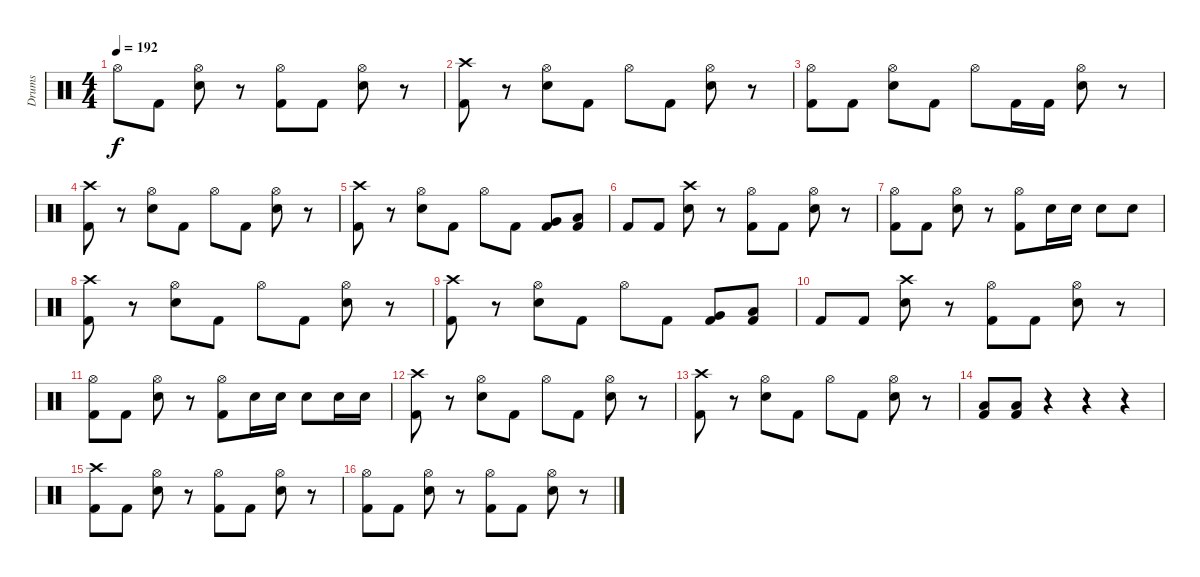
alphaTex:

\track ("Drums" "Drums") {instrument percussion}
\staff {score}
\articulation defaults
\ts (4 4)
\tempo 192
\clef neutral
\ks c "Hi-Hat (open)".8{dy f} "Kick (hit) 2".8
("Hi-Hat (open)" "Snare (hit) 2").8 r.8 ("Hi-Hat (open)" "Kick (hit) 2").8 "Kick (hit) 2".8 ("Hi-Hat (open)" "Snare (hit) 2").8 r.8 |
("Crash high (hit)" "Kick (hit) 2").8 r.8 ("Hi-Hat (open)" "Snare (hit) 2").8 "Kick (hit) 2".8 "Hi-Hat (open)".8 "Kick (hit) 2".8 ("Hi-Hat (open)" "Snare (hit) 2").8 r.8 |
("Hi-Hat (open)" "Kick (hit) 2").8 "Kick (hit) 2".8 ("Hi-Hat (open)" "Snare (hit) 2").8 "Kick (hit) 2".8 "Hi-Hat (open)".8 "Kick (hit) 2".16 "Kick (hit) 2".16 ("Hi-Hat (open)" "Snare (hit) 2").8 r.8 |
("Crash high (hit)" "Kick (hit) 2").8 r.8 ("Hi-Hat (open)" "Snare (hit) 2").8 "Kick (hit) 2".8 "Hi-Hat (open)".8 "Kick (hit) 2".8 ("Hi-Hat (open)" "Snare (hit) 2").8 r.8 |
("Crash high (hit)" "Kick (hit) 2").8 r.8 ("Hi-Hat (open)" "Snare (hit) 2").8 "Kick (hit) 2".8 "Hi-Hat (open)".8 "Kick (hit) 2".8 ("Kick (hit) 2" "Very Low Tom (hit)").8 ("Kick (hit) 2" "Low Floor Tom (hit)").8 |
"Kick (hit) 2".8 "Kick (hit) 2".8 ("Crash high (hit)" "Snare (hit) 2").8 r.8 ("Hi-Hat (open)" "Kick (hit) 2").8 "Kick (hit) 2".8 ("Hi-Hat (open)" "Snare (hit) 2").8 r.8 |
("Hi-Hat (open)" "Kick (hit) 2").8 "Kick (hit) 2".8 ("Hi-Hat (open)" "Snare (hit) 2").8 r.8 ("Hi-Hat (open)" "Kick (hit) 2").8 "Snare (hit) 2".16 "Snare (hit) 2".16 "Snare (hit) 2".8 "Snare (hit) 2".8 |
("Crash high (hit)" "Kick (hit) 2").8 r.8 ("Hi-Hat (open)" "Snare (hit) 2").8 "Kick (hit) 2".8 "Hi-Hat (open)".8 "Kick (hit) 2".8 ("Hi-Hat (open)" "Snare (hit) 2").8 r.8 |
("Crash high (hit)" "Kick (hit) 2").8 r.8 ("Hi-Hat (open)" "Snare (hit) 2").8 "Kick (hit) 2".8 "Hi-Hat (open)".8 "Kick (hit) 2".8 ("Kick (hit) 2" "Very Low Tom (hit)").8 ("Kick (hit) 2" "Low Floor Tom (hit)").8 |
"Kick (hit) 2".8 "Kick (hit) 2".8 ("Crash high (hit)" "Snare (hit) 2").8 r.8 ("Hi-Hat (open)" "Kick (hit) 2").8 "Kick (hit) 2".8 ("Hi-Hat (open)" "Snare (hit) 2").8 r.8 |
("Hi-Hat (open)" "Kick (hit) 2").8 "Kick (hit) 2".8 ("Hi-Hat (open)" "Snare (hit) 2").8 r.8 ("Hi-Hat (open)" "Kick (hit) 2").8 "Snare (hit) 2".16 "Snare (hit) 2".16 "Snare (hit) 2".8 "Snare (hit) 2".16 "Snare (hit) 2".16 |
("Crash high (hit)" "Kick (hit) 2").8 r.8 ("Hi-Hat (open)" "Snare (hit) 2").8 "Kick (hit) 2".8 "Hi-Hat (open)".8 "Kick (hit) 2".8 ("Hi-Hat (open)" "Snare (hit) 2").8 r.8 |
("Crash high (hit)" "Kick (hit) 2").8 r.8 ("Hi-Hat (open)" "Snare (hit) 2").8 "Kick (hit) 2".8 "Hi-Hat (open)".8 "Kick (hit) 2".8 ("Hi-Hat (open)" "Snare (hit) 2").8 r.8 |
("Low Floor Tom (hit)" "Kick (hit) 2").8 ("Low Floor Tom (hit)" "Kick (hit) 2").8 r.4 r.4 r.4 |
("Crash high (hit)" "Kick (hit) 2").8 "Kick (hit) 2".8 ("Hi-Hat (open)" "Snare (hit) 2").8 r.8 ("Hi-Hat (open)" "Kick (hit) 2").8 "Kick (hit) 2".8 ("Hi-Hat (open)" "Snare (hit) 2").8 r.8 |
("Hi-Hat (open)" "Kick (hit) 2").8 "Kick (hit) 2".8 ("Hi-Hat (open)" "Snare (hit) 2").8 r.8 ("Hi-Hat (open)" "Kick (hit) 2").8 "Kick (hit) 2".8 ("Hi-Hat (open)" "Snare (hit) 2").8 r.8
